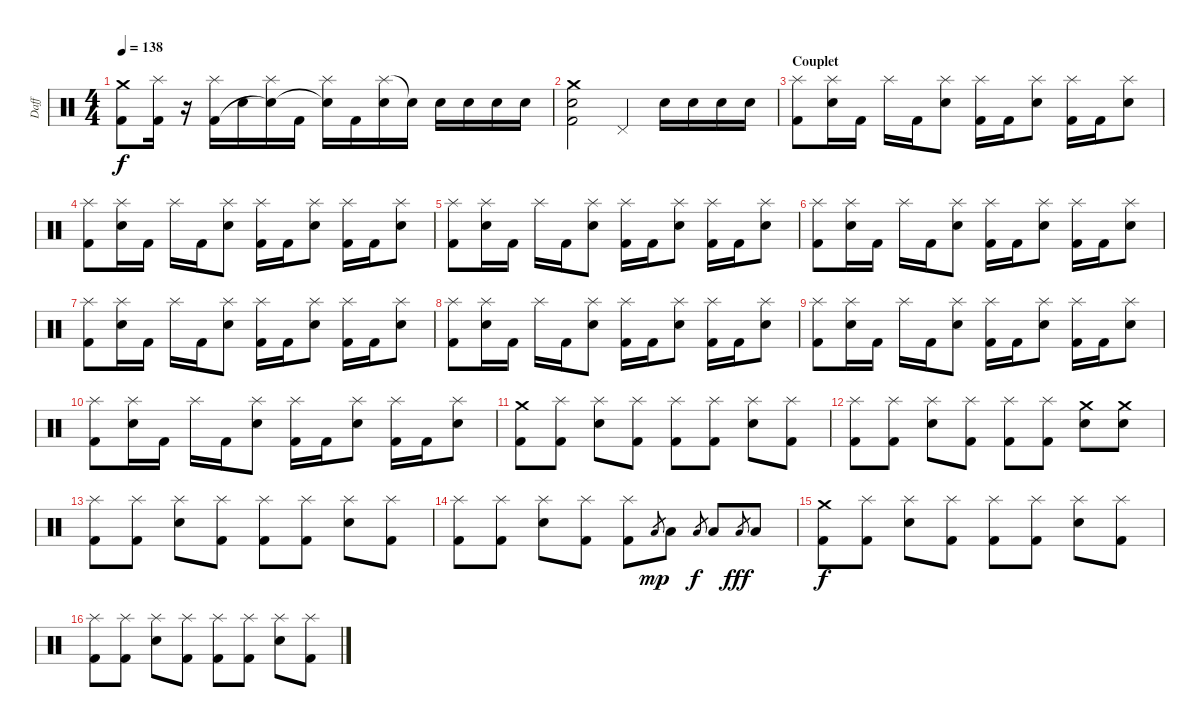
\track ("Daff" "Daff") {instrument percussion}
\staff {score}
\articulation defaults
\ts (4 4)
\tempo 138
\clef neutral
\ks c
("Crash medium (hit)" "Kick (hit) 2").8{dy f} ("Splash (hit)" "Kick (hit) 2").16 r.16 ("Splash (hit)" "Kick (hit) 2").16 "Electric Snare (hit)".16 ("Splash (hit)" "Snare (hit)"{t}).16 "Kick (hit) 2".16 ("Splash (hit)" "Snare (hit)"{t}).16 "Kick (hit) 2".16 ("Splash (hit)" "Electric Snare (hit)").16 "Snare (hit)"{t}.16 "Electric Snare (hit)".16 "Electric Snare (hit)".16 "Electric Snare (hit)".16 "Electric Snare (hit)".16 |
("Crash medium (hit)" "Electric Snare (hit)" "Kick (hit) 2").2 "Pedal Hi-Hat (hit)".4 "Electric Snare (hit)".16 "Electric Snare (hit)".16 "Electric Snare (hit)".16 "Electric Snare (hit)".16 |
\section ("" "Couplet")
("Splash (hit)" "Kick (hit) 2").8 ("Splash (hit)" "Electric Snare (hit)").16 "Kick (hit) 2".16 "Splash (hit)".16 "Kick (hit) 2".16 ("Splash (hit)" "Electric Snare (hit)").8 ("Splash (hit)" "Kick (hit) 2").16 "Kick (hit) 2".16 ("Splash (hit)" "Electric Snare (hit)").8 ("Splash (hit)" "Kick (hit) 2").16 "Kick (hit) 2".16 ("Splash (hit)" "Electric Snare (hit)").8 |
("Splash (hit)" "Kick (hit) 2").8 ("Splash (hit)" "Electric Snare (hit)").16 "Kick (hit) 2".16 "Splash (hit)".16 "Kick (hit) 2".16 ("Splash (hit)" "Electric Snare (hit)").8 ("Splash (hit)" "Kick (hit) 2").16 "Kick (hit) 2".16 ("Splash (hit)" "Electric Snare (hit)").8 ("Splash (hit)" "Kick (hit) 2").16 "Kick (hit) 2".16 ("Splash (hit)" "Electric Snare (hit)").8 |
("Splash (hit)" "Kick (hit) 2").8 ("Splash (hit)" "Electric Snare (hit)").16 "Kick (hit) 2".16 "Splash (hit)".16 "Kick (hit) 2".16 ("Splash (hit)" "Electric Snare (hit)").8 ("Splash (hit)" "Kick (hit) 2").16 "Kick (hit) 2".16 ("Splash (hit)" "Electric Snare (hit)").8 ("Splash (hit)" "Kick (hit) 2").16 "Kick (hit) 2".16 ("Splash (hit)" "Electric Snare (hit)").8 |
("Splash (hit)" "Kick (hit) 2").8 ("Splash (hit)" "Electric Snare (hit)").16 "Kick (hit) 2".16 "Splash (hit)".16 "Kick (hit) 2".16 ("Splash (hit)" "Electric Snare (hit)").8 ("Splash (hit)" "Kick (hit) 2").16 "Kick (hit) 2".16 ("Splash (hit)" "Electric Snare (hit)").8 ("Splash (hit)" "Kick (hit) 2").16 "Kick (hit) 2".16 ("Splash (hit)" "Electric Snare (hit)").8 |
("Splash (hit)" "Kick (hit) 2").8 ("Splash (hit)" "Electric Snare (hit)").16 "Kick (hit) 2".16 "Splash (hit)".16 "Kick (hit) 2".16 ("Splash (hit)" "Electric Snare (hit)").8 ("Splash (hit)" "Kick (hit) 2").16 "Kick (hit) 2".16 ("Splash (hit)" "Electric Snare (hit)").8 ("Splash (hit)" "Kick (hit) 2").16 "Kick (hit) 2".16 ("Splash (hit)" "Electric Snare (hit)").8 |
("Splash (hit)" "Kick (hit) 2").8 ("Splash (hit)" "Electric Snare (hit)").16 "Kick (hit) 2".16 "Splash (hit)".16 "Kick (hit) 2".16 ("Splash (hit)" "Electric Snare (hit)").8 ("Splash (hit)" "Kick (hit) 2").16 "Kick (hit) 2".16 ("Splash (hit)" "Electric Snare (hit)").8 ("Splash (hit)" "Kick (hit) 2").16 "Kick (hit) 2".16 ("Splash (hit)" "Electric Snare (hit)").8 |
("Splash (hit)" "Kick (hit) 2").8 ("Splash (hit)" "Electric Snare (hit)").16 "Kick (hit) 2".16 "Splash (hit)".16 "Kick (hit) 2".16 ("Splash (hit)" "Electric Snare (hit)").8 ("Splash (hit)" "Kick (hit) 2").16 "Kick (hit) 2".16 ("Splash (hit)" "Electric Snare (hit)").8 ("Splash (hit)" "Kick (hit) 2").16 "Kick (hit) 2".16 ("Splash (hit)" "Electric Snare (hit)").8 |
("Splash (hit)" "Kick (hit) 2").8 ("Splash (hit)" "Electric Snare (hit)").16 "Kick (hit) 2".16 "Splash (hit)".16 "Kick (hit) 2".16 ("Splash (hit)" "Electric Snare (hit)").8 ("Splash (hit)" "Kick (hit) 2").16 "Kick (hit) 2".16 ("Splash (hit)" "Electric Snare (hit)").8 ("Splash (hit)" "Kick (hit) 2").16 "Kick (hit) 2".16 ("Splash (hit)" "Electric Snare (hit)").8 |
("Crash medium (hit)" "Kick (hit) 2").8 ("Splash (hit)" "Kick (hit) 2").8 ("Splash (hit)" "Electric Snare (hit)").8 ("Splash (hit)" "Kick (hit) 2").8 ("Splash (hit)" "Kick (hit) 2").8 ("Splash (hit)" "Kick (hit) 2").8 ("Splash (hit)" "Electric Snare (hit)").8 ("Splash (hit)" "Kick (hit) 2").8 |
("Splash (hit)" "Kick (hit) 2").8 ("Splash (hit)" "Kick (hit) 2").8 ("Splash (hit)" "Electric Snare (hit)").8 ("Splash (hit)" "Kick (hit) 2").8 ("Splash (hit)" "Kick (hit) 2").8 ("Splash (hit)" "Kick (hit) 2").8 ("Crash medium (hit)" "Electric Snare (hit)").8 ("Crash medium (hit)" "Electric Snare (hit)").8 |
("Splash (hit)" "Kick (hit) 2").8 ("Splash (hit)" "Kick (hit) 2").8 ("Splash (hit)" "Electric Snare (hit)").8 ("Splash (hit)" "Kick (hit) 2").8 ("Splash (hit)" "Kick (hit) 2").8 ("Splash (hit)" "Kick (hit) 2").8 ("Splash (hit)" "Electric Snare (hit)").8 ("Splash (hit)" "Kick (hit) 2").8 |
("Splash (hit)" "Kick (hit) 2").8 ("Splash (hit)" "Kick (hit) 2").8 ("Splash (hit)" "Electric Snare (hit)").8 ("Splash (hit)" "Kick (hit) 2").8 ("Splash (hit)" "Kick (hit) 2").8 "Low Tom (hit)".8{gr dy mp} "Low Tom (hit)".8 "Low Tom (hit)".8{gr dy f} "Low Tom (hit)".8 "Low Tom (hit)".8{gr dy fff} "Low Tom (hit)".8 |
("Crash medium (hit)" "Kick (hit) 2").8{dy f} ("Splash (hit)" "Kick (hit) 2").8 ("Splash (hit)" "Electric Snare (hit)").8 ("Splash (hit)" "Kick (hit) 2").8 ("Splash (hit)" "Kick (hit) 2").8 ("Splash (hit)" "Kick (hit) 2").8 ("Splash (hit)" "Electric Snare (hit)").8 ("Splash (hit)" "Kick (hit) 2").8 |
("Splash (hit)" "Kick (hit) 2").8 ("Splash (hit)" "Kick (hit) 2").8 ("Splash (hit)" "Electric Snare (hit)").8 ("Splash (hit)" "Kick (hit) 2").8 ("Splash (hit)" "Kick (hit) 2").8 ("Splash (hit)" "Kick (hit) 2").8 ("Splash (hit)" "Electric Snare (hit)").8 ("Splash (hit)" "Kick (hit) 2").8
